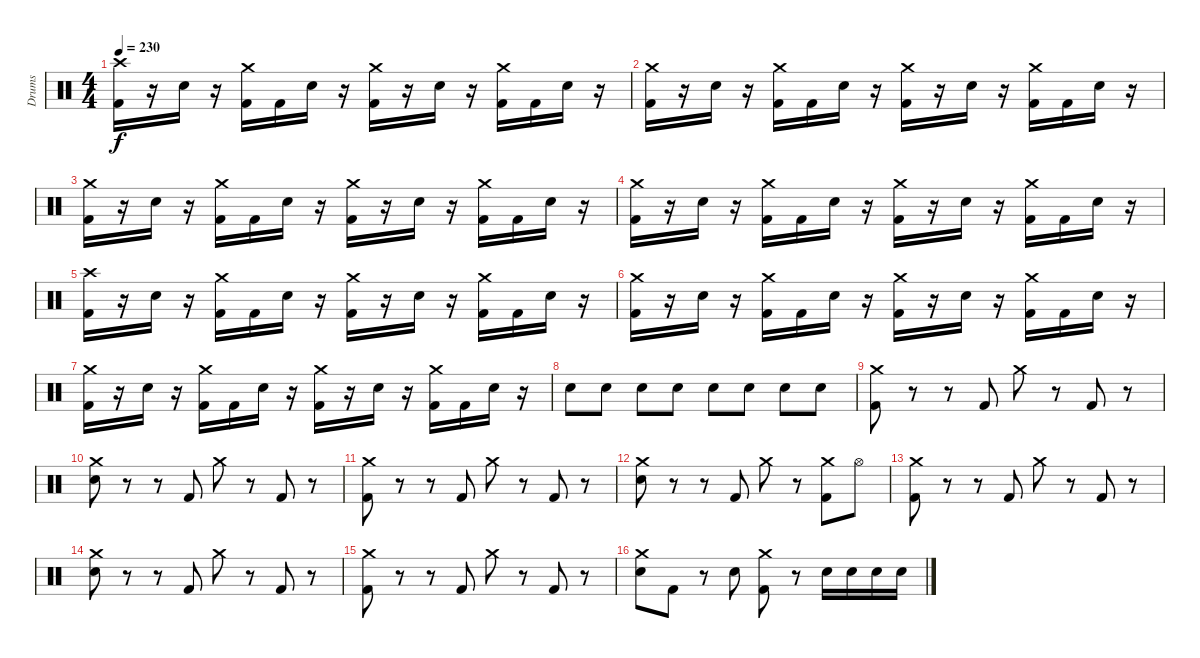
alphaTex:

\track ("Drums" "Drums") {instrument percussion}
\staff {score}
\articulation defaults
\ts (4 4)
\tempo 230
\clef neutral
\ks c
("Kick (hit) 2" "Crash high (hit)").16{dy f} r.16 "Electric Snare (hit)".16 r.16 ("Kick (hit) 2" "Crash medium (hit)").16 "Kick (hit) 2".16 "Electric Snare (hit)".16 r.16 ("Kick (hit) 2" "Crash medium (hit)").16 r.16 "Electric Snare (hit)".16 r.16 ("Kick (hit) 2" "Crash medium (hit)").16 "Kick (hit) 2".16 "Electric Snare (hit)".16 r.16 |
("Kick (hit) 2" "Crash medium (hit)").16 r.16 "Electric Snare (hit)".16 r.16 ("Kick (hit) 2" "Crash medium (hit)").16 "Kick (hit) 2".16 "Electric Snare (hit)".16 r.16 ("Kick (hit) 2" "Crash medium (hit)").16 r.16 "Electric Snare (hit)".16 r.16 ("Kick (hit) 2" "Crash medium (hit)").16 "Kick (hit) 2".16 "Electric Snare (hit)".16 r.16 |
("Kick (hit) 2" "Crash medium (hit)").16 r.16 "Electric Snare (hit)".16 r.16 ("Kick (hit) 2" "Crash medium (hit)").16 "Kick (hit) 2".16 "Electric Snare (hit)".16 r.16 ("Kick (hit) 2" "Crash medium (hit)").16 r.16 "Electric Snare (hit)".16 r.16 ("Kick (hit) 2" "Crash medium (hit)").16 "Kick (hit) 2".16 "Electric Snare (hit)".16 r.16 |
("Kick (hit) 2" "Crash medium (hit)").16 r.16 "Electric Snare (hit)".16 r.16 ("Kick (hit) 2" "Crash medium (hit)").16 "Kick (hit) 2".16 "Electric Snare (hit)".16 r.16 ("Kick (hit) 2" "Crash medium (hit)").16 r.16 "Electric Snare (hit)".16 r.16 ("Kick (hit) 2" "Crash medium (hit)").16 "Kick (hit) 2".16 "Electric Snare (hit)".16 r.16 |
("Kick (hit) 2" "Crash high (hit)").16 r.16 "Electric Snare (hit)".16 r.16 ("Kick (hit) 2" "Crash medium (hit)").16 "Kick (hit) 2".16 "Electric Snare (hit)".16 r.16 ("Kick (hit) 2" "Crash medium (hit)").16 r.16 "Electric Snare (hit)".16 r.16 ("Kick (hit) 2" "Crash medium (hit)").16 "Kick (hit) 2".16 "Electric Snare (hit)".16 r.16 |
("Kick (hit) 2" "Crash medium (hit)").16 r.16 "Electric Snare (hit)".16 r.16 ("Kick (hit) 2" "Crash medium (hit)").16 "Kick (hit) 2".16 "Electric Snare (hit)".16 r.16 ("Kick (hit) 2" "Crash medium (hit)").16 r.16 "Electric Snare (hit)".16 r.16 ("Kick (hit) 2" "Crash medium (hit)").16 "Kick (hit) 2".16 "Electric Snare (hit)".16 r.16 |
("Kick (hit) 2" "Crash medium (hit)").16 r.16 "Electric Snare (hit)".16 r.16 ("Kick (hit) 2" "Crash medium (hit)").16 "Kick (hit) 2".16 "Electric Snare (hit)".16 r.16 ("Kick (hit) 2" "Crash medium (hit)").16 r.16 "Electric Snare (hit)".16 r.16 ("Kick (hit) 2" "Crash medium (hit)").16 "Kick (hit) 2".16 "Electric Snare (hit)".16 r.16 |
"Electric Snare (hit)".8 "Electric Snare (hit)".8 "Electric Snare (hit)".8 "Electric Snare (hit)".8 "Electric Snare (hit)".8 "Electric Snare (hit)".8 "Electric Snare (hit)".8 "Electric Snare (hit)".8 |
("Kick (hit) 2" "Crash medium (hit)").8 r.8 r.8 "Kick (hit) 2".8 "Crash medium (hit)".8 r.8 "Kick (hit) 2".8 r.8 |
("Electric Snare (hit)" "Crash medium (hit)").8 r.8 r.8 "Kick (hit) 2".8 "Crash medium (hit)".8 r.8 "Kick (hit) 2".8 r.8 |
("Kick (hit) 2" "Crash medium (hit)").8 r.8 r.8 "Kick (hit) 2".8 "Crash medium (hit)".8 r.8 "Kick (hit) 2".8 r.8 |
("Electric Snare (hit)" "Crash medium (hit)").8 r.8 r.8 "Kick (hit) 2".8 "Crash medium (hit)".8 r.8 ("Kick (hit) 2" "Crash medium (hit)").8 "Hi-Hat (open)".8 |
("Kick (hit) 2" "Crash medium (hit)").8 r.8 r.8 "Kick (hit) 2".8 "Crash medium (hit)".8 r.8 "Kick (hit) 2".8 r.8 |
("Electric Snare (hit)" "Crash medium (hit)").8 r.8 r.8 "Kick (hit) 2".8 "Crash medium (hit)".8 r.8 "Kick (hit) 2".8 r.8 |
("Kick (hit) 2" "Crash medium (hit)").8 r.8 r.8 "Kick (hit) 2".8 "Crash medium (hit)".8 r.8 "Kick (hit) 2".8 r.8 |
("Electric Snare (hit)" "Crash medium (hit)").8 "Kick (hit) 2".8 r.8 "Electric Snare (hit)".8 ("Kick (hit) 2" "Crash medium (hit)").8 r.8 "Electric Snare (hit)".16 "Electric Snare (hit)".16 "Electric Snare (hit)".16 "Electric Snare (hit)".16
